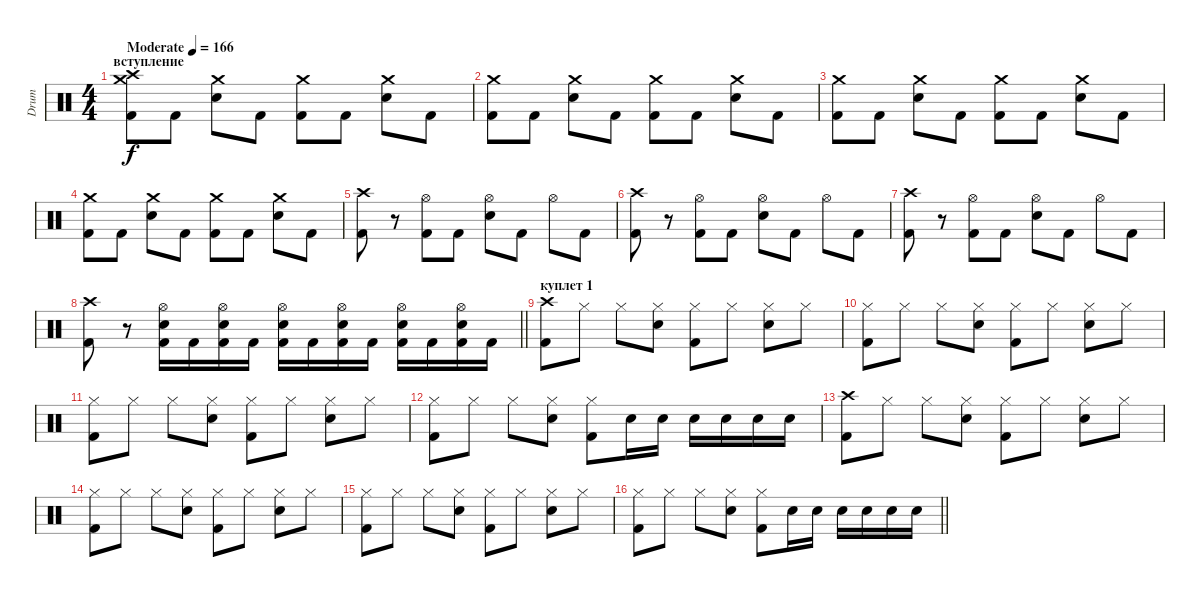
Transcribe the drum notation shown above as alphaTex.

\track ("Drum" "Drum") {instrument percussion}
\staff {score}
\articulation defaults
\ts (4 4)
\section ("" "вступление")
\tempo (166 "Moderate")
\clef neutral
\ks c
("Crash high (hit)" "Crash medium (hit)" "Kick (hit) 2").8{dy f} "Kick (hit) 2".8 ("Crash medium (hit)" "Snare (hit) 2").8 "Kick (hit) 2".8 ("Crash medium (hit)" "Kick (hit) 2").8 "Kick (hit) 2".8 ("Crash medium (hit)" "Snare (hit) 2").8 "Kick (hit) 2".8 |
("Crash medium (hit)" "Kick (hit) 2").8 "Kick (hit) 2".8 ("Crash medium (hit)" "Snare (hit) 2").8 "Kick (hit) 2".8 ("Crash medium (hit)" "Kick (hit) 2").8 "Kick (hit) 2".8 ("Crash medium (hit)" "Snare (hit) 2").8 "Kick (hit) 2".8 |
("Crash medium (hit)" "Kick (hit) 2").8 "Kick (hit) 2".8 ("Crash medium (hit)" "Snare (hit) 2").8 "Kick (hit) 2".8 ("Crash medium (hit)" "Kick (hit) 2").8 "Kick (hit) 2".8 ("Crash medium (hit)" "Snare (hit) 2").8 "Kick (hit) 2".8 |
("Crash medium (hit)" "Kick (hit) 2").8 "Kick (hit) 2".8 ("Crash medium (hit)" "Snare (hit) 2").8 "Kick (hit) 2".8 ("Crash medium (hit)" "Kick (hit) 2").8 "Kick (hit) 2".8 ("Crash medium (hit)" "Snare (hit) 2").8 "Kick (hit) 2".8 |
("Crash high (hit)" "Kick (hit) 2").8 r.8 ("Hi-Hat (open)" "Kick (hit) 2").8 "Kick (hit) 2".8 ("Hi-Hat (open)" "Snare (hit) 2").8 "Kick (hit) 2".8 "Hi-Hat (open)".8 "Kick (hit) 2".8 |
("Crash high (hit)" "Kick (hit) 2").8 r.8 ("Hi-Hat (open)" "Kick (hit) 2").8 "Kick (hit) 2".8 ("Hi-Hat (open)" "Snare (hit) 2").8 "Kick (hit) 2".8 "Hi-Hat (open)".8 "Kick (hit) 2".8 |
("Crash high (hit)" "Kick (hit) 2").8 r.8 ("Hi-Hat (open)" "Kick (hit) 2").8 "Kick (hit) 2".8 ("Hi-Hat (open)" "Snare (hit) 2").8 "Kick (hit) 2".8 "Hi-Hat (open)".8 "Kick (hit) 2".8 |
\barLineRight lightlight
("Crash high (hit)" "Kick (hit) 2").8 r.8 ("Hi-Hat (open)" "Snare (hit) 2" "Kick (hit) 2").16 "Kick (hit) 2".16 ("Hi-Hat (open)" "Snare (hit) 2" "Kick (hit) 2").16 "Kick (hit) 2".16 ("Hi-Hat (open)" "Snare (hit) 2" "Kick (hit) 2").16 "Kick (hit) 2".16 ("Hi-Hat (open)" "Snare (hit) 2" "Kick (hit) 2").16 "Kick (hit) 2".16 ("Hi-Hat (open)" "Snare (hit) 2" "Kick (hit) 2").16 "Kick (hit) 2".16 ("Hi-Hat (open)" "Snare (hit) 2" "Kick (hit) 2").16 "Kick (hit) 2".16 |
\section ("" "куплет 1")
("Crash high (hit)" "Kick (hit) 2").8 "Hi-Hat (closed)".8 "Hi-Hat (closed)".8 ("Snare (hit) 2" "Hi-Hat (closed)").8 ("Kick (hit) 2" "Hi-Hat (closed)").8 "Hi-Hat (closed)".8 ("Snare (hit) 2" "Hi-Hat (closed)").8 "Hi-Hat (closed)".8 |
("Kick (hit) 2" "Hi-Hat (closed)").8 "Hi-Hat (closed)".8 "Hi-Hat (closed)".8 ("Snare (hit) 2" "Hi-Hat (closed)").8 ("Kick (hit) 2" "Hi-Hat (closed)").8 "Hi-Hat (closed)".8 ("Snare (hit) 2" "Hi-Hat (closed)").8 "Hi-Hat (closed)".8 |
("Kick (hit) 2" "Hi-Hat (closed)").8 "Hi-Hat (closed)".8 "Hi-Hat (closed)".8 ("Snare (hit) 2" "Hi-Hat (closed)").8 ("Kick (hit) 2" "Hi-Hat (closed)").8 "Hi-Hat (closed)".8 ("Snare (hit) 2" "Hi-Hat (closed)").8 "Hi-Hat (closed)".8 |
("Kick (hit) 2" "Hi-Hat (closed)").8 "Hi-Hat (closed)".8 "Hi-Hat (closed)".8 ("Snare (hit) 2" "Hi-Hat (closed)").8 ("Kick (hit) 2" "Hi-Hat (closed)").8 "Snare (hit) 2".16 "Snare (hit) 2".16 "Snare (hit) 2".16 "Snare (hit) 2".16 "Snare (hit) 2".16 "Snare (hit) 2".16 |
("Crash high (hit)" "Kick (hit) 2").8 "Hi-Hat (closed)".8 "Hi-Hat (closed)".8 ("Snare (hit) 2" "Hi-Hat (closed)").8 ("Kick (hit) 2" "Hi-Hat (closed)").8 "Hi-Hat (closed)".8 ("Snare (hit) 2" "Hi-Hat (closed)").8 "Hi-Hat (closed)".8 |
("Kick (hit) 2" "Hi-Hat (closed)").8 "Hi-Hat (closed)".8 "Hi-Hat (closed)".8 ("Snare (hit) 2" "Hi-Hat (closed)").8 ("Kick (hit) 2" "Hi-Hat (closed)").8 "Hi-Hat (closed)".8 ("Snare (hit) 2" "Hi-Hat (closed)").8 "Hi-Hat (closed)".8 |
("Kick (hit) 2" "Hi-Hat (closed)").8 "Hi-Hat (closed)".8 "Hi-Hat (closed)".8 ("Snare (hit) 2" "Hi-Hat (closed)").8 ("Kick (hit) 2" "Hi-Hat (closed)").8 "Hi-Hat (closed)".8 ("Snare (hit) 2" "Hi-Hat (closed)").8 "Hi-Hat (closed)".8 |
\barLineRight lightlight
("Kick (hit) 2" "Hi-Hat (closed)").8 "Hi-Hat (closed)".8 "Hi-Hat (closed)".8 ("Snare (hit) 2" "Hi-Hat (closed)").8 ("Kick (hit) 2" "Hi-Hat (closed)").8 "Snare (hit) 2".16 "Snare (hit) 2".16 "Snare (hit) 2".16 "Snare (hit) 2".16 "Snare (hit) 2".16 "Snare (hit) 2".16
